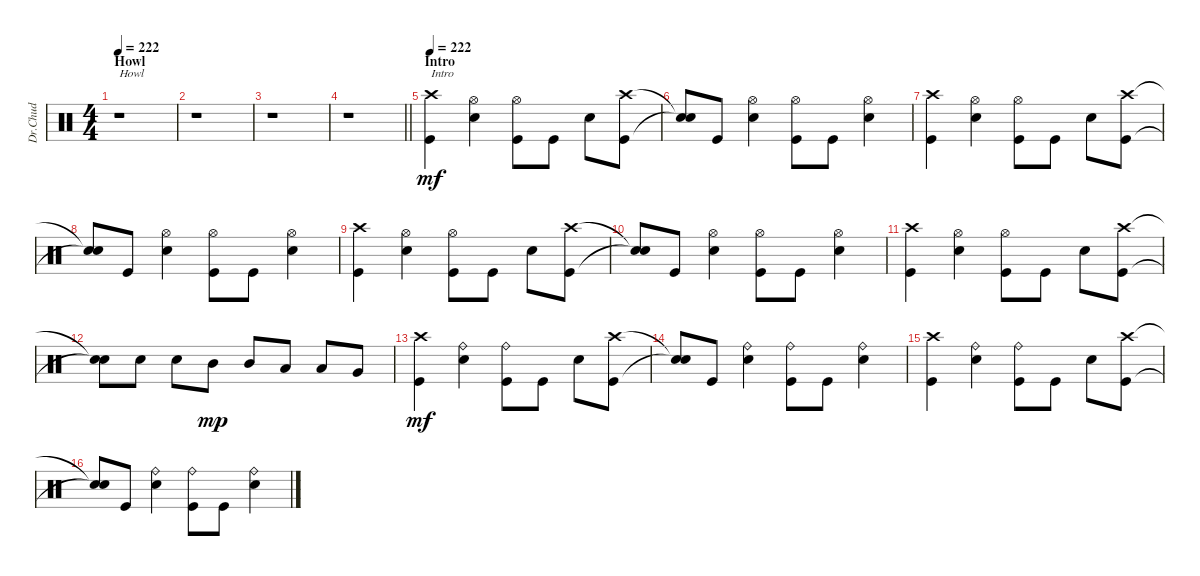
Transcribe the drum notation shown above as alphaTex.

\track ("Dr.Chud" "Dr.Chud") {instrument percussion}
\staff {score}
\articulation defaults
\ts (4 4)
\section ("" "Howl")
\tempo 222
\tempo 160
\tempo 222
\clef neutral
\ks c
r.1{txt "Howl" dy mf} |
r.1 |
r.1 |
\barLineRight lightlight
r.1 |
\section ("" "Intro")
\tempo 222
("Crash high (hit)" "Kick (hit)").4{txt "Intro"} ("Hi-Hat (open)" "Electric Snare (hit)").4 ("Hi-Hat (open)" "Kick (hit)").8 "Kick (hit)".8 "Electric Snare (hit)".8 ("Crash high (hit)" "Kick (hit)").8 |
("Snare (hit)"{t} "Snare (hit)"{t}).8 "Kick (hit)".8 ("Hi-Hat (open)" "Electric Snare (hit)").4 ("Hi-Hat (open)" "Kick (hit)").8 "Kick (hit)".8 ("Hi-Hat (open)" "Electric Snare (hit)").4 |
("Crash high (hit)" "Kick (hit)").4 ("Hi-Hat (open)" "Electric Snare (hit)").4 ("Hi-Hat (open)" "Kick (hit)").8 "Kick (hit)".8 "Electric Snare (hit)".8 ("Crash high (hit)" "Kick (hit)").8 |
("Snare (hit)"{t} "Snare (hit)"{t}).8 "Kick (hit)".8 ("Hi-Hat (open)" "Electric Snare (hit)").4 ("Hi-Hat (open)" "Kick (hit)").8 "Kick (hit)".8 ("Hi-Hat (open)" "Electric Snare (hit)").4 |
("Crash high (hit)" "Kick (hit)").4 ("Hi-Hat (open)" "Electric Snare (hit)").4 ("Hi-Hat (open)" "Kick (hit)").8 "Kick (hit)".8 "Electric Snare (hit)".8 ("Crash high (hit)" "Kick (hit)").8 |
("Snare (hit)"{t} "Snare (hit)"{t}).8 "Kick (hit)".8 ("Hi-Hat (open)" "Electric Snare (hit)").4 ("Hi-Hat (open)" "Kick (hit)").8 "Kick (hit)".8 ("Hi-Hat (open)" "Electric Snare (hit)").4 |
("Crash high (hit)" "Kick (hit)").4 ("Hi-Hat (open)" "Electric Snare (hit)").4 ("Hi-Hat (open)" "Kick (hit)").8 "Kick (hit)".8 "Electric Snare (hit)".8 ("Crash high (hit)" "Kick (hit)").8 |
("Snare (hit)"{t} "Snare (hit)"{t}).8 "Electric Snare (hit)".8 "Electric Snare (hit)".8 "Mid Tom (hit)".8{dy mp} "Mid Tom (hit)".8 "Low Tom (hit)".8 "Low Tom (hit)".8 "Very Low Tom (hit)".8 |
("Crash high (hit)" "Kick (hit)").4{dy mf} ("Ride (bell)" "Electric Snare (hit)").4 ("Ride (bell)" "Kick (hit)").8 "Kick (hit)".8 "Electric Snare (hit)".8 ("Crash high (hit)" "Kick (hit)").8 |
("Snare (hit)"{t} "Snare (hit)"{t}).8 "Kick (hit)".8 ("Ride (bell)" "Electric Snare (hit)").4 ("Ride (bell)" "Kick (hit)").8 "Kick (hit)".8 ("Ride (bell)" "Electric Snare (hit)").4 |
("Crash high (hit)" "Kick (hit)").4 ("Ride (bell)" "Electric Snare (hit)").4 ("Ride (bell)" "Kick (hit)").8 "Kick (hit)".8 "Electric Snare (hit)".8 ("Crash high (hit)" "Kick (hit)").8 |
("Snare (hit)"{t} "Snare (hit)"{t}).8 "Kick (hit)".8 ("Ride (bell)" "Electric Snare (hit)").4 ("Ride (bell)" "Kick (hit)").8 "Kick (hit)".8 ("Ride (bell)" "Electric Snare (hit)").4
